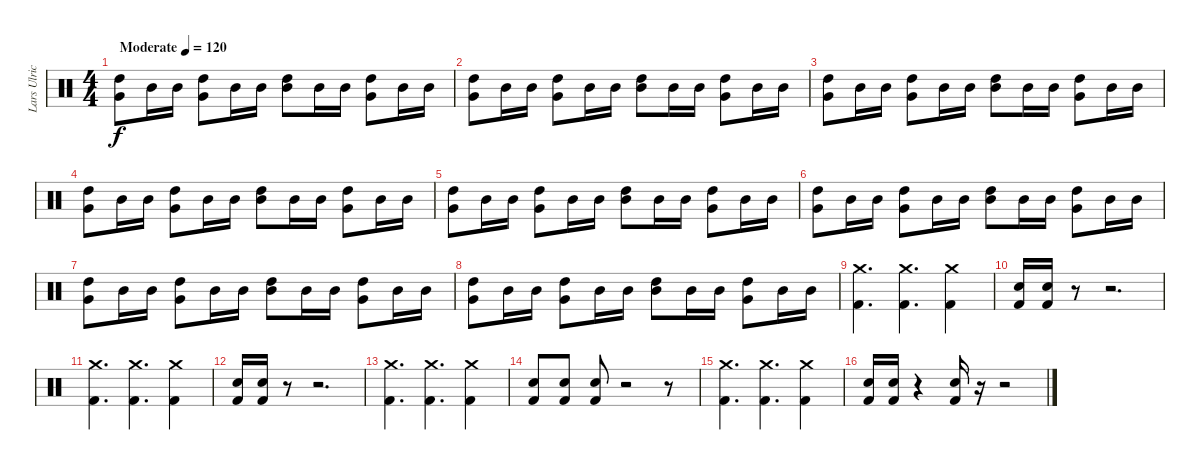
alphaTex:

\track ("Lars Ulrich" "Lars Ulric") {instrument percussion}
\staff {score}
\articulation defaults
\ts (4 4)
\tempo (120 "Moderate")
\clef neutral
\ks c
("High Tom (hit)" "Very Low Tom (hit)").8{dy f} "Mid Tom (hit)".16 "Mid Tom (hit)".16 ("High Tom (hit)" "Very Low Tom (hit)").8 "Mid Tom (hit)".16 "Mid Tom (hit)".16 ("High Tom (hit)" "Mid Tom (hit)").8 "Mid Tom (hit)".16 "Mid Tom (hit)".16 ("High Tom (hit)" "Very Low Tom (hit)").8 "Mid Tom (hit)".16 "Mid Tom (hit)".16 |
("High Tom (hit)" "Very Low Tom (hit)").8 "Mid Tom (hit)".16 "Mid Tom (hit)".16 ("High Tom (hit)" "Very Low Tom (hit)").8 "Mid Tom (hit)".16 "Mid Tom (hit)".16 ("High Tom (hit)" "Mid Tom (hit)").8 "Mid Tom (hit)".16 "Mid Tom (hit)".16 ("High Tom (hit)" "Very Low Tom (hit)").8 "Mid Tom (hit)".16 "Mid Tom (hit)".16 |
("High Tom (hit)" "Very Low Tom (hit)").8 "Mid Tom (hit)".16 "Mid Tom (hit)".16 ("High Tom (hit)" "Very Low Tom (hit)").8 "Mid Tom (hit)".16 "Mid Tom (hit)".16 ("High Tom (hit)" "Mid Tom (hit)").8 "Mid Tom (hit)".16 "Mid Tom (hit)".16 ("High Tom (hit)" "Very Low Tom (hit)").8 "Mid Tom (hit)".16 "Mid Tom (hit)".16 |
("High Tom (hit)" "Very Low Tom (hit)").8 "Mid Tom (hit)".16 "Mid Tom (hit)".16 ("High Tom (hit)" "Very Low Tom (hit)").8 "Mid Tom (hit)".16 "Mid Tom (hit)".16 ("High Tom (hit)" "Mid Tom (hit)").8 "Mid Tom (hit)".16 "Mid Tom (hit)".16 ("High Tom (hit)" "Very Low Tom (hit)").8 "Mid Tom (hit)".16 "Mid Tom (hit)".16 |
("High Tom (hit)" "Very Low Tom (hit)").8 "Mid Tom (hit)".16 "Mid Tom (hit)".16 ("High Tom (hit)" "Very Low Tom (hit)").8 "Mid Tom (hit)".16 "Mid Tom (hit)".16 ("High Tom (hit)" "Mid Tom (hit)").8 "Mid Tom (hit)".16 "Mid Tom (hit)".16 ("High Tom (hit)" "Very Low Tom (hit)").8 "Mid Tom (hit)".16 "Mid Tom (hit)".16 |
("High Tom (hit)" "Very Low Tom (hit)").8 "Mid Tom (hit)".16 "Mid Tom (hit)".16 ("High Tom (hit)" "Very Low Tom (hit)").8 "Mid Tom (hit)".16 "Mid Tom (hit)".16 ("High Tom (hit)" "Mid Tom (hit)").8 "Mid Tom (hit)".16 "Mid Tom (hit)".16 ("High Tom (hit)" "Very Low Tom (hit)").8 "Mid Tom (hit)".16 "Mid Tom (hit)".16 |
("High Tom (hit)" "Very Low Tom (hit)").8 "Mid Tom (hit)".16 "Mid Tom (hit)".16 ("High Tom (hit)" "Very Low Tom (hit)").8 "Mid Tom (hit)".16 "Mid Tom (hit)".16 ("High Tom (hit)" "Mid Tom (hit)").8 "Mid Tom (hit)".16 "Mid Tom (hit)".16 ("High Tom (hit)" "Very Low Tom (hit)").8 "Mid Tom (hit)".16 "Mid Tom (hit)".16 |
("High Tom (hit)" "Very Low Tom (hit)").8 "Mid Tom (hit)".16 "Mid Tom (hit)".16 ("High Tom (hit)" "Very Low Tom (hit)").8 "Mid Tom (hit)".16 "Mid Tom (hit)".16 ("High Tom (hit)" "Mid Tom (hit)").8 "Mid Tom (hit)".16 "Mid Tom (hit)".16 ("High Tom (hit)" "Very Low Tom (hit)").8 "Mid Tom (hit)".16 "Mid Tom (hit)".16 |
("Crash medium (hit)" "Kick (hit) 2").4{d} ("Crash medium (hit)" "Kick (hit) 2").4{d} ("Crash medium (hit)" "Kick (hit) 2").4 |
("Electric Snare (hit)" "Kick (hit) 2").16 ("Electric Snare (hit)" "Kick (hit) 2").16 r.8 r.2{d} |
("Crash medium (hit)" "Kick (hit) 2").4{d} ("Crash medium (hit)" "Kick (hit) 2").4{d} ("Crash medium (hit)" "Kick (hit) 2").4 |
("Electric Snare (hit)" "Kick (hit) 2").16 ("Electric Snare (hit)" "Kick (hit) 2").16 r.8 r.2{d} |
("Crash medium (hit)" "Kick (hit) 2").4{d} ("Crash medium (hit)" "Kick (hit) 2").4{d} ("Crash medium (hit)" "Kick (hit) 2").4 |
("Electric Snare (hit)" "Kick (hit) 2").8 ("Electric Snare (hit)" "Kick (hit) 2").8 ("Electric Snare (hit)" "Kick (hit) 2").8 r.2 r.8 |
("Crash medium (hit)" "Kick (hit) 2").4{d} ("Crash medium (hit)" "Kick (hit) 2").4{d} ("Crash medium (hit)" "Kick (hit) 2").4 |
("Electric Snare (hit)" "Kick (hit) 2").16 ("Electric Snare (hit)" "Kick (hit) 2").16 r.4 ("Electric Snare (hit)" "Kick (hit) 2").16 r.16 r.2
